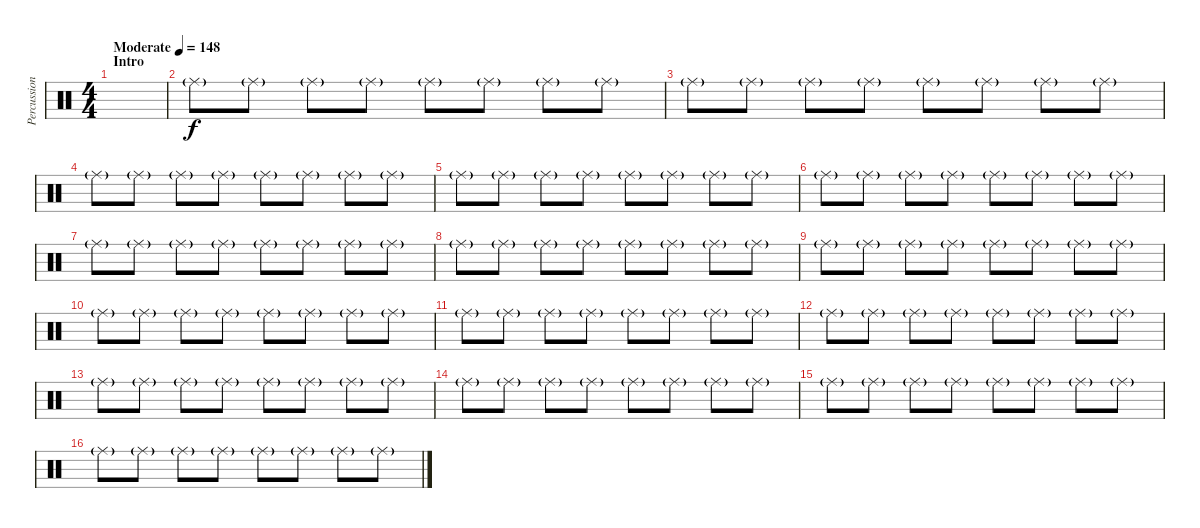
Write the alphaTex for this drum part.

\track ("Percussions" "Percussion") {instrument percussion}
\staff {score}
\articulation defaults
\ts (4 4)
\section ("" "Intro")
\tempo (148 "Moderate")
\clef neutral
\ks c
|
"Ride (middle)"{g}.8 "Ride (middle)"{g}.8 "Ride (middle)"{g}.8 "Ride (middle)"{g}.8 "Ride (middle)"{g}.8 "Ride (middle)"{g}.8 "Ride (middle)"{g}.8 "Ride (middle)"{g}.8 |
"Ride (middle)"{g}.8 "Ride (middle)"{g}.8 "Ride (middle)"{g}.8 "Ride (middle)"{g}.8 "Ride (middle)"{g}.8 "Ride (middle)"{g}.8 "Ride (middle)"{g}.8 "Ride (middle)"{g}.8 |
"Ride (middle)"{g}.8 "Ride (middle)"{g}.8 "Ride (middle)"{g}.8 "Ride (middle)"{g}.8 "Ride (middle)"{g}.8 "Ride (middle)"{g}.8 "Ride (middle)"{g}.8 "Ride (middle)"{g}.8 |
"Ride (middle)"{g}.8 "Ride (middle)"{g}.8 "Ride (middle)"{g}.8 "Ride (middle)"{g}.8 "Ride (middle)"{g}.8 "Ride (middle)"{g}.8 "Ride (middle)"{g}.8 "Ride (middle)"{g}.8 |
"Ride (middle)"{g}.8 "Ride (middle)"{g}.8 "Ride (middle)"{g}.8 "Ride (middle)"{g}.8 "Ride (middle)"{g}.8 "Ride (middle)"{g}.8 "Ride (middle)"{g}.8 "Ride (middle)"{g}.8 |
"Ride (middle)"{g}.8 "Ride (middle)"{g}.8 "Ride (middle)"{g}.8 "Ride (middle)"{g}.8 "Ride (middle)"{g}.8 "Ride (middle)"{g}.8 "Ride (middle)"{g}.8 "Ride (middle)"{g}.8 |
"Ride (middle)"{g}.8 "Ride (middle)"{g}.8 "Ride (middle)"{g}.8 "Ride (middle)"{g}.8 "Ride (middle)"{g}.8 "Ride (middle)"{g}.8 "Ride (middle)"{g}.8 "Ride (middle)"{g}.8 |
"Ride (middle)"{g}.8 "Ride (middle)"{g}.8 "Ride (middle)"{g}.8 "Ride (middle)"{g}.8 "Ride (middle)"{g}.8 "Ride (middle)"{g}.8 "Ride (middle)"{g}.8 "Ride (middle)"{g}.8 |
"Ride (middle)"{g}.8 "Ride (middle)"{g}.8 "Ride (middle)"{g}.8 "Ride (middle)"{g}.8 "Ride (middle)"{g}.8 "Ride (middle)"{g}.8 "Ride (middle)"{g}.8 "Ride (middle)"{g}.8 |
"Ride (middle)"{g}.8 "Ride (middle)"{g}.8 "Ride (middle)"{g}.8 "Ride (middle)"{g}.8 "Ride (middle)"{g}.8 "Ride (middle)"{g}.8 "Ride (middle)"{g}.8 "Ride (middle)"{g}.8 |
"Ride (middle)"{g}.8 "Ride (middle)"{g}.8 "Ride (middle)"{g}.8 "Ride (middle)"{g}.8 "Ride (middle)"{g}.8 "Ride (middle)"{g}.8 "Ride (middle)"{g}.8 "Ride (middle)"{g}.8 |
"Ride (middle)"{g}.8 "Ride (middle)"{g}.8 "Ride (middle)"{g}.8 "Ride (middle)"{g}.8 "Ride (middle)"{g}.8 "Ride (middle)"{g}.8 "Ride (middle)"{g}.8 "Ride (middle)"{g}.8 |
"Ride (middle)"{g}.8 "Ride (middle)"{g}.8 "Ride (middle)"{g}.8 "Ride (middle)"{g}.8 "Ride (middle)"{g}.8 "Ride (middle)"{g}.8 "Ride (middle)"{g}.8 "Ride (middle)"{g}.8 |
"Ride (middle)"{g}.8 "Ride (middle)"{g}.8 "Ride (middle)"{g}.8 "Ride (middle)"{g}.8 "Ride (middle)"{g}.8 "Ride (middle)"{g}.8 "Ride (middle)"{g}.8 "Ride (middle)"{g}.8 |
"Ride (middle)"{g}.8 "Ride (middle)"{g}.8 "Ride (middle)"{g}.8 "Ride (middle)"{g}.8 "Ride (middle)"{g}.8 "Ride (middle)"{g}.8 "Ride (middle)"{g}.8 "Ride (middle)"{g}.8
